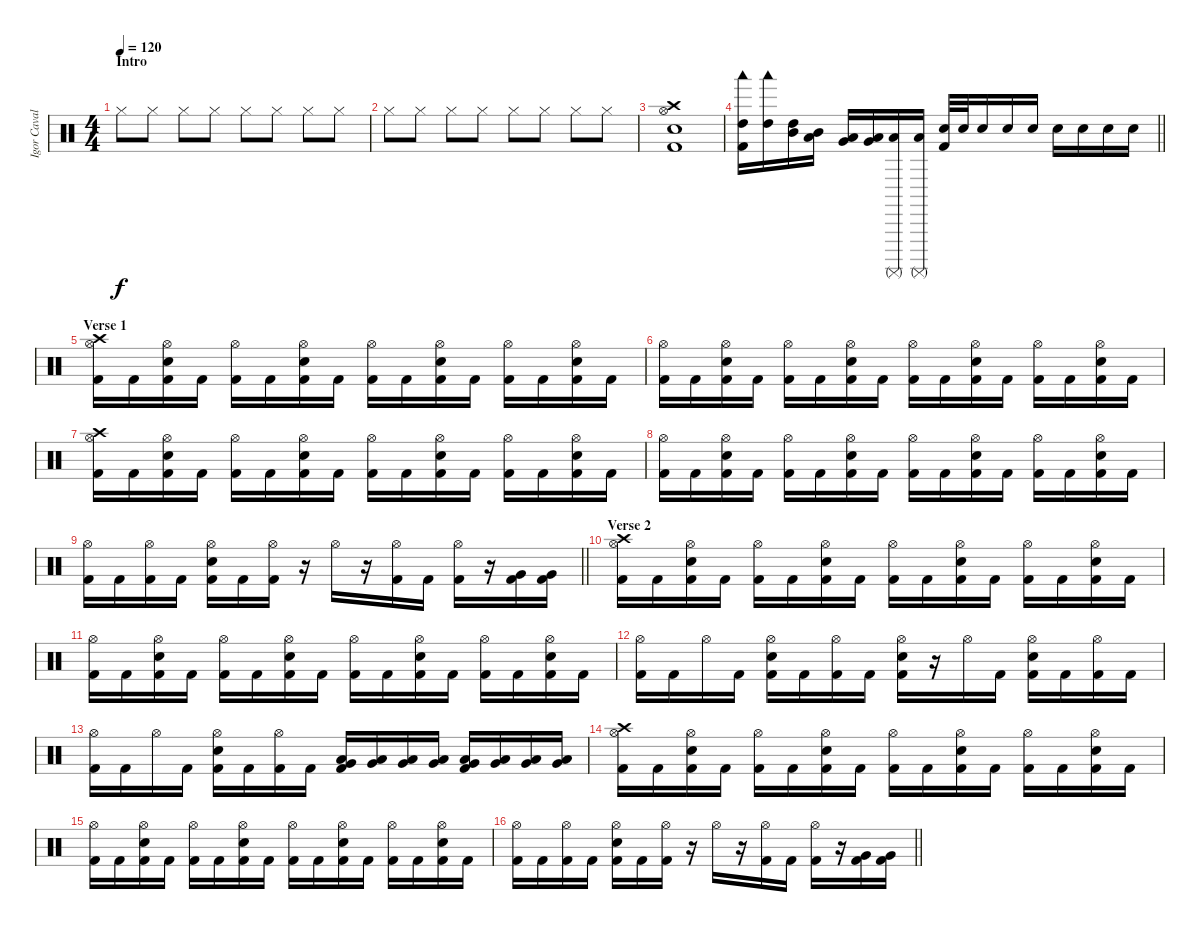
\track ("Igor Cavalera" "Igor Caval") {instrument percussion}
\staff {score}
\articulation defaults
\ts (4 4)
\section ("" "Intro")
\tempo 120
\clef neutral
\ks c "Hi-Hat (closed)".8{dy f} "Hi-Hat (closed)".8 "Hi-Hat (closed)".8 "Hi-Hat (closed)".8 "Hi-Hat (closed)".8 "Hi-Hat (closed)".8 "Hi-Hat (closed)".8 "Hi-Hat (closed)".8
|
"Hi-Hat (closed)".8 "Hi-Hat (closed)".8 "Hi-Hat (closed)".8 "Hi-Hat (closed)".8 "Hi-Hat (closed)".8 "Hi-Hat (closed)".8 "Hi-Hat (closed)".8 "Hi-Hat (closed)".8 |
("Crash high (hit)" "Hi-Hat (open)" "Electric Snare (hit)" "Kick (hit) 2").1 |
\barLineRight lightlight
("Woodblock low (hit)" "High Tom (hit)" "Kick (hit) 2").16 ("Woodblock low (hit)" "High Tom (hit)").16 ("High Tom (hit)" "Mid Tom (hit)").16 ("Mid Tom (hit)" "Low Tom (hit)").16 ("Low Tom (hit)" "Very Low Tom (hit)").16 ("Very Low Tom (hit)" "Low Floor Tom (hit)").16 ("Low Floor Tom (hit)" "Surdo (mute)").16 ("Low Floor Tom (hit)" "Surdo (mute)").16 ("Electric Snare (hit)" "Kick (hit) 2").32 "Electric Snare (hit)".32 "Electric Snare (hit)".16 "Electric Snare (hit)".16 "Electric Snare (hit)".16 "Electric Snare (hit)".16 "Electric Snare (hit)".16 "Electric Snare (hit)".16 "Electric Snare (hit)".16 |
\section ("" "Verse 1")
("Crash high (hit)" "Hi-Hat (open)" "Kick (hit) 2").16 "Kick (hit) 2".16 ("Hi-Hat (open)" "Electric Snare (hit)" "Kick (hit) 2").16 "Kick (hit) 2".16 ("Hi-Hat (open)" "Kick (hit) 2").16 "Kick (hit) 2".16 ("Hi-Hat (open)" "Electric Snare (hit)" "Kick (hit) 2").16 "Kick (hit) 2".16 ("Hi-Hat (open)" "Kick (hit) 2").16 "Kick (hit) 2".16 ("Hi-Hat (open)" "Electric Snare (hit)" "Kick (hit) 2").16 "Kick (hit) 2".16 ("Hi-Hat (open)" "Kick (hit) 2").16 "Kick (hit) 2".16 ("Hi-Hat (open)" "Electric Snare (hit)" "Kick (hit) 2").16 "Kick (hit) 2".16 |
("Hi-Hat (open)" "Kick (hit) 2").16 "Kick (hit) 2".16 ("Hi-Hat (open)" "Electric Snare (hit)" "Kick (hit) 2").16 "Kick (hit) 2".16 ("Hi-Hat (open)" "Kick (hit) 2").16 "Kick (hit) 2".16 ("Hi-Hat (open)" "Electric Snare (hit)" "Kick (hit) 2").16 "Kick (hit) 2".16 ("Hi-Hat (open)" "Kick (hit) 2").16 "Kick (hit) 2".16 ("Hi-Hat (open)" "Electric Snare (hit)" "Kick (hit) 2").16 "Kick (hit) 2".16 ("Hi-Hat (open)" "Kick (hit) 2").16 "Kick (hit) 2".16 ("Hi-Hat (open)" "Electric Snare (hit)" "Kick (hit) 2").16 "Kick (hit) 2".16 |
("Crash high (hit)" "Hi-Hat (open)" "Kick (hit) 2").16 "Kick (hit) 2".16 ("Hi-Hat (open)" "Electric Snare (hit)" "Kick (hit) 2").16 "Kick (hit) 2".16 ("Hi-Hat (open)" "Kick (hit) 2").16 "Kick (hit) 2".16 ("Hi-Hat (open)" "Electric Snare (hit)" "Kick (hit) 2").16 "Kick (hit) 2".16 ("Hi-Hat (open)" "Kick (hit) 2").16 "Kick (hit) 2".16 ("Hi-Hat (open)" "Electric Snare (hit)" "Kick (hit) 2").16 "Kick (hit) 2".16 ("Hi-Hat (open)" "Kick (hit) 2").16 "Kick (hit) 2".16 ("Hi-Hat (open)" "Electric Snare (hit)" "Kick (hit) 2").16 "Kick (hit) 2".16 |
("Hi-Hat (open)" "Kick (hit) 2").16 "Kick (hit) 2".16 ("Hi-Hat (open)" "Electric Snare (hit)" "Kick (hit) 2").16 "Kick (hit) 2".16 ("Hi-Hat (open)" "Kick (hit) 2").16 "Kick (hit) 2".16 ("Hi-Hat (open)" "Electric Snare (hit)" "Kick (hit) 2").16 "Kick (hit) 2".16 ("Hi-Hat (open)" "Kick (hit) 2").16 "Kick (hit) 2".16 ("Hi-Hat (open)" "Electric Snare (hit)" "Kick (hit) 2").16 "Kick (hit) 2".16 ("Hi-Hat (open)" "Kick (hit) 2").16 "Kick (hit) 2".16 ("Hi-Hat (open)" "Electric Snare (hit)" "Kick (hit) 2").16 "Kick (hit) 2".16 |
\barLineRight lightlight
("Hi-Hat (open)" "Kick (hit) 2").16 "Kick (hit) 2".16 ("Hi-Hat (open)" "Kick (hit) 2").16 "Kick (hit) 2".16 ("Hi-Hat (open)" "Electric Snare (hit)" "Kick (hit) 2").16 "Kick (hit) 2".16 ("Hi-Hat (open)" "Kick (hit) 2").16 r.16 "Hi-Hat (open)".16 r.16 ("Hi-Hat (open)" "Kick (hit) 2").16 "Kick (hit) 2".16 ("Hi-Hat (open)" "Kick (hit) 2").16 r.16 ("Very Low Tom (hit)" "Kick (hit) 2").16 ("Very Low Tom (hit)" "Kick (hit) 2").16 |
\section ("" "Verse 2")
("Crash high (hit)" "Hi-Hat (open)" "Kick (hit) 2").16 "Kick (hit) 2".16 ("Hi-Hat (open)" "Electric Snare (hit)" "Kick (hit) 2").16 "Kick (hit) 2".16 ("Hi-Hat (open)" "Kick (hit) 2").16 "Kick (hit) 2".16 ("Hi-Hat (open)" "Electric Snare (hit)" "Kick (hit) 2").16 "Kick (hit) 2".16 ("Hi-Hat (open)" "Kick (hit) 2").16 "Kick (hit) 2".16 ("Hi-Hat (open)" "Electric Snare (hit)" "Kick (hit) 2").16 "Kick (hit) 2".16 ("Hi-Hat (open)" "Kick (hit) 2").16 "Kick (hit) 2".16 ("Hi-Hat (open)" "Electric Snare (hit)" "Kick (hit) 2").16 "Kick (hit) 2".16 |
("Hi-Hat (open)" "Kick (hit) 2").16 "Kick (hit) 2".16 ("Hi-Hat (open)" "Electric Snare (hit)" "Kick (hit) 2").16 "Kick (hit) 2".16 ("Hi-Hat (open)" "Kick (hit) 2").16 "Kick (hit) 2".16 ("Hi-Hat (open)" "Electric Snare (hit)" "Kick (hit) 2").16 "Kick (hit) 2".16 ("Hi-Hat (open)" "Kick (hit) 2").16 "Kick (hit) 2".16 ("Hi-Hat (open)" "Electric Snare (hit)" "Kick (hit) 2").16 "Kick (hit) 2".16 ("Hi-Hat (open)" "Kick (hit) 2").16 "Kick (hit) 2".16 ("Hi-Hat (open)" "Electric Snare (hit)" "Kick (hit) 2").16 "Kick (hit) 2".16 |
("Hi-Hat (open)" "Kick (hit) 2").16 "Kick (hit) 2".16 "Hi-Hat (open)".16 "Kick (hit) 2".16 ("Hi-Hat (open)" "Electric Snare (hit)" "Kick (hit) 2").16 "Kick (hit) 2".16 ("Hi-Hat (open)" "Kick (hit) 2").16 "Kick (hit) 2".16 ("Hi-Hat (open)" "Electric Snare (hit)" "Kick (hit) 2").16 r.16 "Hi-Hat (open)".16 "Kick (hit) 2".16 ("Hi-Hat (open)" "Electric Snare (hit)" "Kick (hit) 2").16 "Kick (hit) 2".16 ("Hi-Hat (open)" "Kick (hit) 2").16 "Kick (hit) 2".16 |
("Hi-Hat (open)" "Kick (hit) 2").16 "Kick (hit) 2".16 "Hi-Hat (open)".16 "Kick (hit) 2".16 ("Hi-Hat (open)" "Electric Snare (hit)" "Kick (hit) 2").16 "Kick (hit) 2".16 ("Hi-Hat (open)" "Kick (hit) 2").16 "Kick (hit) 2".16 ("Very Low Tom (hit)" "Low Tom (hit)" "Kick (hit) 2").16 ("Very Low Tom (hit)" "Low Tom (hit)").16 ("Very Low Tom (hit)" "Low Tom (hit)").16 ("Very Low Tom (hit)" "Low Tom (hit)").16 ("Very Low Tom (hit)" "Low Tom (hit)" "Kick (hit) 2").16 ("Very Low Tom (hit)" "Low Tom (hit)").16 ("Very Low Tom (hit)" "Low Tom (hit)").16 ("Very Low Tom (hit)" "Low Tom (hit)").16 |
("Crash high (hit)" "Hi-Hat (open)" "Kick (hit) 2").16 "Kick (hit) 2".16 ("Hi-Hat (open)" "Electric Snare (hit)" "Kick (hit) 2").16 "Kick (hit) 2".16 ("Hi-Hat (open)" "Kick (hit) 2").16 "Kick (hit) 2".16 ("Hi-Hat (open)" "Electric Snare (hit)" "Kick (hit) 2").16 "Kick (hit) 2".16 ("Hi-Hat (open)" "Kick (hit) 2").16 "Kick (hit) 2".16 ("Hi-Hat (open)" "Electric Snare (hit)" "Kick (hit) 2").16 "Kick (hit) 2".16 ("Hi-Hat (open)" "Kick (hit) 2").16 "Kick (hit) 2".16 ("Hi-Hat (open)" "Electric Snare (hit)" "Kick (hit) 2").16 "Kick (hit) 2".16 |
("Hi-Hat (open)" "Kick (hit) 2").16 "Kick (hit) 2".16 ("Hi-Hat (open)" "Electric Snare (hit)" "Kick (hit) 2").16 "Kick (hit) 2".16 ("Hi-Hat (open)" "Kick (hit) 2").16 "Kick (hit) 2".16 ("Hi-Hat (open)" "Electric Snare (hit)" "Kick (hit) 2").16 "Kick (hit) 2".16 ("Hi-Hat (open)" "Kick (hit) 2").16 "Kick (hit) 2".16 ("Hi-Hat (open)" "Electric Snare (hit)" "Kick (hit) 2").16 "Kick (hit) 2".16 ("Hi-Hat (open)" "Kick (hit) 2").16 "Kick (hit) 2".16 ("Hi-Hat (open)" "Electric Snare (hit)" "Kick (hit) 2").16 "Kick (hit) 2".16 |
\barLineRight lightlight
("Hi-Hat (open)" "Kick (hit) 2").16 "Kick (hit) 2".16 ("Hi-Hat (open)" "Kick (hit) 2").16 "Kick (hit) 2".16 ("Hi-Hat (open)" "Electric Snare (hit)" "Kick (hit) 2").16 "Kick (hit) 2".16 ("Hi-Hat (open)" "Kick (hit) 2").16 r.16 "Hi-Hat (open)".16 r.16 ("Hi-Hat (open)" "Kick (hit) 2").16 "Kick (hit) 2".16 ("Hi-Hat (open)" "Kick (hit) 2").16 r.16 ("Very Low Tom (hit)" "Kick (hit) 2").16 ("Very Low Tom (hit)" "Kick (hit) 2").16
